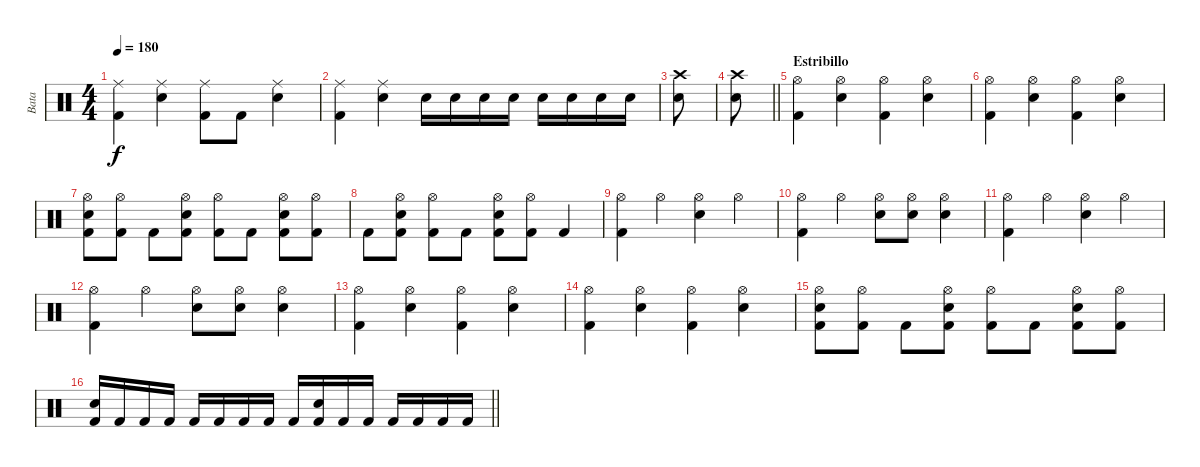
\track ("Bata" "Bata") {instrument percussion}
\staff {score}
\articulation defaults
\ts (4 4)
\tempo 180
\clef neutral
\ks c
("Ride (middle)" "Kick (hit) 2").4{dy f} ("Ride (middle)" "Snare (hit) 2").4 ("Ride (middle)" "Kick (hit) 2").8 "Kick (hit) 2".8 ("Ride (middle)" "Snare (hit) 2").4 |
("Ride (middle)" "Kick (hit) 2").4 ("Ride (middle)" "Snare (hit) 2").4 "Snare (hit) 2".16 "Snare (hit) 2".16 "Snare (hit) 2".16 "Snare (hit) 2".16 "Snare (hit) 2".16 "Snare (hit) 2".16 "Snare (hit) 2".16 "Snare (hit) 2".16 |
("Crash high (hit)" "Snare (hit) 2").8 |
\barLineRight lightlight
("Crash high (hit)" "Snare (hit) 2").8 |
\section ("" "Estribillo")
("Hi-Hat (open)" "Kick (hit) 2").4 ("Hi-Hat (open)" "Snare (hit) 2").4 ("Hi-Hat (open)" "Kick (hit) 2").4 ("Hi-Hat (open)" "Snare (hit) 2").4 |
("Hi-Hat (open)" "Kick (hit) 2").4 ("Hi-Hat (open)" "Snare (hit) 2").4 ("Hi-Hat (open)" "Kick (hit) 2").4 ("Hi-Hat (open)" "Snare (hit) 2").4 |
("Hi-Hat (open)" "Snare (hit) 2" "Kick (hit) 2").8 ("Hi-Hat (open)" "Kick (hit) 2").8 "Kick (hit) 2".8 ("Hi-Hat (open)" "Snare (hit) 2" "Kick (hit) 2").8 ("Hi-Hat (open)" "Kick (hit) 2").8 "Kick (hit) 2".8 ("Hi-Hat (open)" "Snare (hit) 2" "Kick (hit) 2").8 ("Hi-Hat (open)" "Kick (hit) 2").8 |
"Kick (hit) 2".8 ("Hi-Hat (open)" "Snare (hit) 2" "Kick (hit) 2").8 ("Hi-Hat (open)" "Kick (hit) 2").8 "Kick (hit) 2".8 ("Hi-Hat (open)" "Snare (hit) 2" "Kick (hit) 2").8 ("Hi-Hat (open)" "Kick (hit) 2").8 "Kick (hit) 2".4 |
("Hi-Hat (open)" "Kick (hit) 2").4 "Hi-Hat (open)".4 ("Hi-Hat (open)" "Snare (hit) 2").4 "Hi-Hat (open)".4 |
("Hi-Hat (open)" "Kick (hit) 2").4 "Hi-Hat (open)".4 ("Hi-Hat (open)" "Snare (hit) 2").8 ("Hi-Hat (open)" "Snare (hit) 2").8 ("Hi-Hat (open)" "Snare (hit) 2").4 |
("Hi-Hat (open)" "Kick (hit) 2").4 "Hi-Hat (open)".4 ("Hi-Hat (open)" "Snare (hit) 2").4 "Hi-Hat (open)".4 |
("Hi-Hat (open)" "Kick (hit) 2").4 "Hi-Hat (open)".4 ("Hi-Hat (open)" "Snare (hit) 2").8 ("Hi-Hat (open)" "Snare (hit) 2").8 ("Hi-Hat (open)" "Snare (hit) 2").4 |
("Hi-Hat (open)" "Kick (hit) 2").4 ("Hi-Hat (open)" "Snare (hit) 2").4 ("Hi-Hat (open)" "Kick (hit) 2").4 ("Hi-Hat (open)" "Snare (hit) 2").4 |
("Hi-Hat (open)" "Kick (hit) 2").4 ("Hi-Hat (open)" "Snare (hit) 2").4 ("Hi-Hat (open)" "Kick (hit) 2").4 ("Hi-Hat (open)" "Snare (hit) 2").4 |
("Hi-Hat (open)" "Snare (hit) 2" "Kick (hit) 2").8 ("Hi-Hat (open)" "Kick (hit) 2").8 "Kick (hit) 2".8 ("Hi-Hat (open)" "Snare (hit) 2" "Kick (hit) 2").8 ("Hi-Hat (open)" "Kick (hit) 2").8 "Kick (hit) 2".8 ("Hi-Hat (open)" "Snare (hit) 2" "Kick (hit) 2").8 ("Hi-Hat (open)" "Kick (hit) 2").8 |
\barLineRight lightlight
("Snare (hit) 2" "Kick (hit) 2").16 "Kick (hit) 2".16 "Kick (hit) 2".16 "Kick (hit) 2".16 "Kick (hit) 2".16 "Kick (hit) 2".16 "Kick (hit) 2".16 "Kick (hit) 2".16 "Kick (hit) 2".16 ("Snare (hit) 2" "Kick (hit) 2").16 "Kick (hit) 2".16 "Kick (hit) 2".16 "Kick (hit) 2".16 "Kick (hit) 2".16 "Kick (hit) 2".16 "Kick (hit) 2".16
